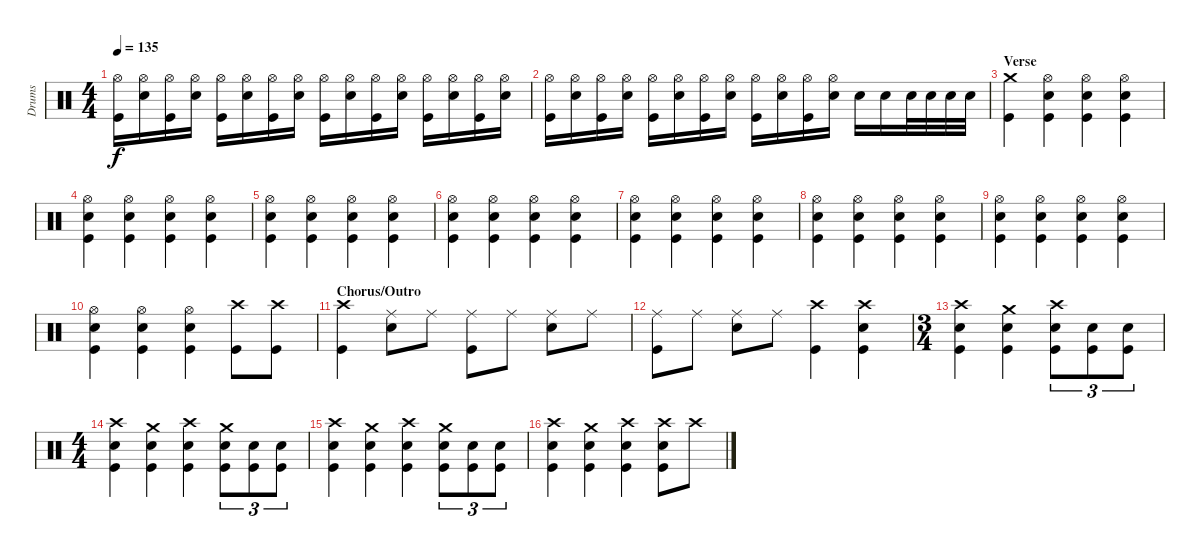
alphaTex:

\track ("Drums" "Drums") {instrument percussion}
\staff {score}
\articulation defaults
\ts (4 4)
\tempo 135
\clef neutral
\ks c
("Hi-Hat (open)" "Kick (hit)").16{dy f} ("Hi-Hat (open)" "Snare (hit) 2").16 ("Hi-Hat (open)" "Kick (hit)").16 ("Hi-Hat (open)" "Snare (hit) 2").16 ("Hi-Hat (open)" "Kick (hit)").16 ("Hi-Hat (open)" "Snare (hit) 2").16 ("Hi-Hat (open)" "Kick (hit)").16 ("Hi-Hat (open)" "Snare (hit) 2").16 ("Hi-Hat (open)" "Kick (hit)").16 ("Hi-Hat (open)" "Snare (hit) 2").16 ("Hi-Hat (open)" "Kick (hit)").16 ("Hi-Hat (open)" "Snare (hit) 2").16 ("Hi-Hat (open)" "Kick (hit)").16 ("Hi-Hat (open)" "Snare (hit) 2").16 ("Hi-Hat (open)" "Kick (hit)").16 ("Hi-Hat (open)" "Snare (hit) 2").16 |
("Hi-Hat (open)" "Kick (hit)").16 ("Hi-Hat (open)" "Snare (hit) 2").16 ("Hi-Hat (open)" "Kick (hit)").16 ("Hi-Hat (open)" "Snare (hit) 2").16 ("Hi-Hat (open)" "Kick (hit)").16 ("Hi-Hat (open)" "Snare (hit) 2").16 ("Hi-Hat (open)" "Kick (hit)").16 ("Hi-Hat (open)" "Snare (hit) 2").16 ("Hi-Hat (open)" "Kick (hit)").16 ("Hi-Hat (open)" "Snare (hit) 2").16 ("Hi-Hat (open)" "Kick (hit)").16 ("Hi-Hat (open)" "Snare (hit) 2").16 "Snare (hit) 2".16 "Snare (hit) 2".16 "Snare (hit) 2".32 "Snare (hit) 2".32 "Snare (hit) 2".32 "Snare (hit) 2".32 |
\section ("" "Verse")
("Crash medium (hit)" "Kick (hit)").4 ("Hi-Hat (open)" "Snare (hit) 2" "Kick (hit)").4 ("Hi-Hat (open)" "Snare (hit) 2" "Kick (hit)").4 ("Hi-Hat (open)" "Snare (hit) 2" "Kick (hit)").4 |
("Hi-Hat (open)" "Snare (hit) 2" "Kick (hit)").4 ("Hi-Hat (open)" "Snare (hit) 2" "Kick (hit)").4 ("Hi-Hat (open)" "Snare (hit) 2" "Kick (hit)").4 ("Hi-Hat (open)" "Snare (hit) 2" "Kick (hit)").4 |
("Hi-Hat (open)" "Snare (hit) 2" "Kick (hit)").4 ("Hi-Hat (open)" "Snare (hit) 2" "Kick (hit)").4 ("Hi-Hat (open)" "Snare (hit) 2" "Kick (hit)").4 ("Hi-Hat (open)" "Snare (hit) 2" "Kick (hit)").4 |
("Hi-Hat (open)" "Snare (hit) 2" "Kick (hit)").4 ("Hi-Hat (open)" "Snare (hit) 2" "Kick (hit)").4 ("Hi-Hat (open)" "Snare (hit) 2" "Kick (hit)").4 ("Hi-Hat (open)" "Snare (hit) 2" "Kick (hit)").4 |
("Hi-Hat (open)" "Snare (hit) 2" "Kick (hit)").4 ("Hi-Hat (open)" "Snare (hit) 2" "Kick (hit)").4 ("Hi-Hat (open)" "Snare (hit) 2" "Kick (hit)").4 ("Hi-Hat (open)" "Snare (hit) 2" "Kick (hit)").4 |
("Hi-Hat (open)" "Snare (hit) 2" "Kick (hit)").4 ("Hi-Hat (open)" "Snare (hit) 2" "Kick (hit)").4 ("Hi-Hat (open)" "Snare (hit) 2" "Kick (hit)").4 ("Hi-Hat (open)" "Snare (hit) 2" "Kick (hit)").4 |
("Hi-Hat (open)" "Snare (hit) 2" "Kick (hit)").4 ("Hi-Hat (open)" "Snare (hit) 2" "Kick (hit)").4 ("Hi-Hat (open)" "Snare (hit) 2" "Kick (hit)").4 ("Hi-Hat (open)" "Snare (hit) 2" "Kick (hit)").4 |
("Hi-Hat (open)" "Snare (hit) 2" "Kick (hit)").4 ("Hi-Hat (open)" "Snare (hit) 2" "Kick (hit)").4 ("Hi-Hat (open)" "Snare (hit) 2" "Kick (hit)").4 ("Crash high (hit)" "Kick (hit)").8 ("Crash high (hit)" "Kick (hit)").8 |
\section ("" "Chorus/Outro")
("Crash high (hit)" "Kick (hit)").4 ("Ride (middle)" "Snare (hit) 2").8 "Ride (middle)".8 ("Ride (middle)" "Kick (hit)").8 "Ride (middle)".8 ("Ride (middle)" "Snare (hit) 2").8 "Ride (middle)".8 |
("Ride (middle)" "Kick (hit)").8 "Ride (middle)".8 ("Ride (middle)" "Snare (hit) 2").8 "Ride (middle)".8 ("Crash high (hit)" "Kick (hit)").4 ("Crash high (hit)" "Snare (hit) 2" "Kick (hit)").4 |
\ts (3 4)
("Crash high (hit)" "Snare (hit) 2" "Kick (hit)").4 ("Crash medium (hit)" "Snare (hit) 2" "Kick (hit)").4 ("Crash high (hit)" "Snare (hit) 2" "Kick (hit)").8{tu (3 2)} ("Snare (hit) 2" "Kick (hit)").8{tu (3 2)} ("Snare (hit) 2" "Kick (hit)").8{tu (3 2)} |
\ts (4 4)
("Crash high (hit)" "Snare (hit) 2" "Kick (hit)").4 ("Crash medium (hit)" "Snare (hit) 2" "Kick (hit)").4 ("Crash high (hit)" "Snare (hit) 2" "Kick (hit)").4 ("Crash medium (hit)" "Snare (hit) 2" "Kick (hit)").8{tu (3 2)} ("Snare (hit) 2" "Kick (hit)").8{tu (3 2)} ("Snare (hit) 2" "Kick (hit)").8{tu (3 2)} |
("Crash high (hit)" "Snare (hit) 2" "Kick (hit)").4 ("Crash medium (hit)" "Snare (hit) 2" "Kick (hit)").4 ("Crash high (hit)" "Snare (hit) 2" "Kick (hit)").4 ("Crash medium (hit)" "Snare (hit) 2" "Kick (hit)").8{tu (3 2)} ("Snare (hit) 2" "Kick (hit)").8{tu (3 2)} ("Snare (hit) 2" "Kick (hit)").8{tu (3 2)} |
("Crash high (hit)" "Snare (hit) 2" "Kick (hit)").4 ("Crash medium (hit)" "Snare (hit) 2" "Kick (hit)").4 ("Crash high (hit)" "Snare (hit) 2" "Kick (hit)").4 ("Crash high (hit)" "Snare (hit) 2" "Kick (hit)").8 "Crash high (hit)".8
